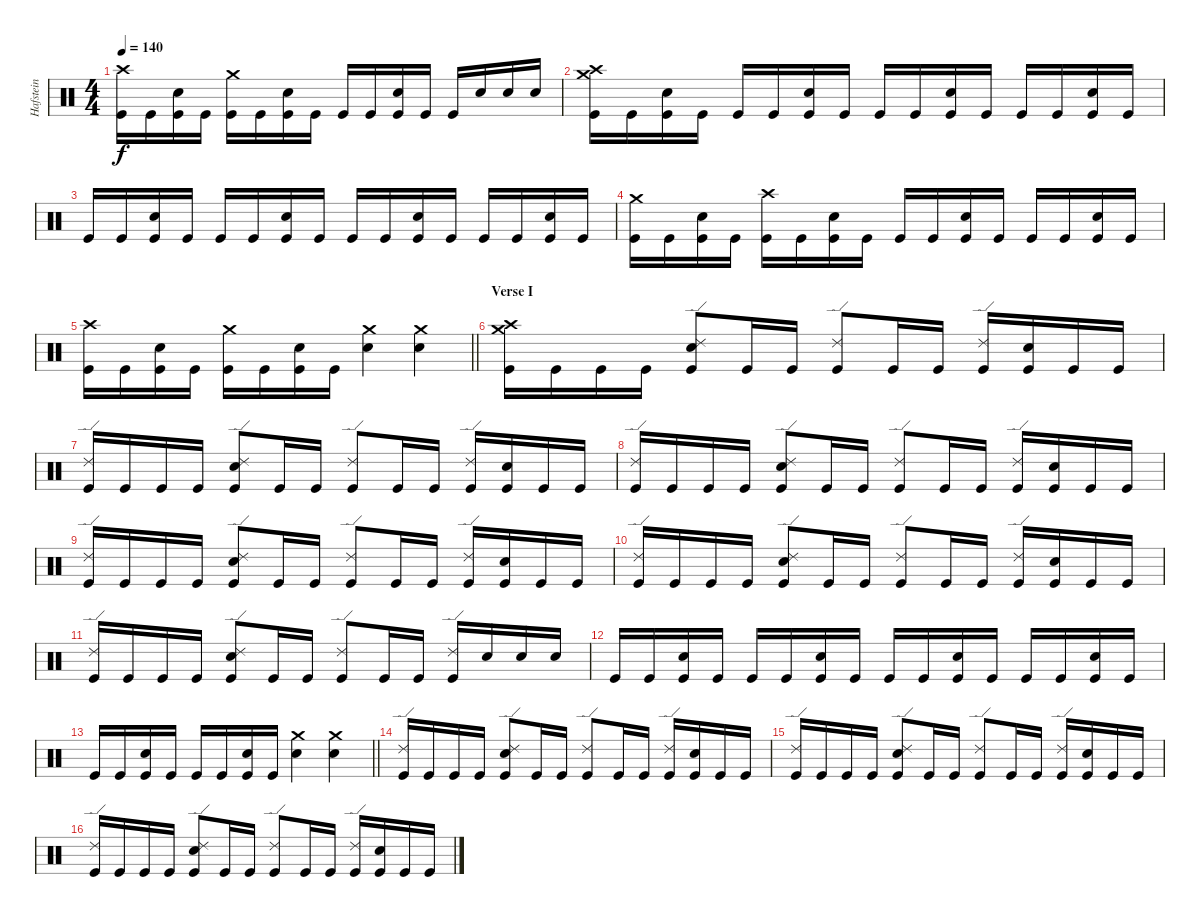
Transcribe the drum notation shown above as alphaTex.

\track ("Hafstein" "Hafstein") {instrument percussion}
\staff {score}
\articulation defaults
\ts (4 4)
\tempo 140
\clef neutral
\ks c
("Crash high (hit)" "Kick (hit)").16{dy f} "Kick (hit)".16 ("Electric Snare (hit)" "Kick (hit)").16 "Kick (hit)".16 ("Crash medium (hit)" "Kick (hit)").16 "Kick (hit)".16 ("Electric Snare (hit)" "Kick (hit)").16 "Kick (hit)".16 "Kick (hit)".16 "Kick (hit)".16 ("Electric Snare (hit)" "Kick (hit)").16 "Kick (hit)".16 "Kick (hit)".16 "Electric Snare (hit)".16 "Electric Snare (hit)".16 "Electric Snare (hit)".16 |
("Crash medium (hit)" "Crash high (hit)" "Kick (hit)").16 "Kick (hit)".16 ("Electric Snare (hit)" "Kick (hit)").16 "Kick (hit)".16 "Kick (hit)".16 "Kick (hit)".16 ("Electric Snare (hit)" "Kick (hit)").16 "Kick (hit)".16 "Kick (hit)".16 "Kick (hit)".16 ("Electric Snare (hit)" "Kick (hit)").16 "Kick (hit)".16 "Kick (hit)".16 "Kick (hit)".16 ("Electric Snare (hit)" "Kick (hit)").16 "Kick (hit)".16 |
"Kick (hit)".16 "Kick (hit)".16 ("Electric Snare (hit)" "Kick (hit)").16 "Kick (hit)".16 "Kick (hit)".16 "Kick (hit)".16 ("Electric Snare (hit)" "Kick (hit)").16 "Kick (hit)".16 "Kick (hit)".16 "Kick (hit)".16 ("Electric Snare (hit)" "Kick (hit)").16 "Kick (hit)".16 "Kick (hit)".16 "Kick (hit)".16 ("Electric Snare (hit)" "Kick (hit)").16 "Kick (hit)".16 |
("Crash medium (hit)" "Kick (hit)").16 "Kick (hit)".16 ("Electric Snare (hit)" "Kick (hit)").16 "Kick (hit)".16 ("Crash high (hit)" "Kick (hit)").16 "Kick (hit)".16 ("Electric Snare (hit)" "Kick (hit)").16 "Kick (hit)".16 "Kick (hit)".16 "Kick (hit)".16 ("Electric Snare (hit)" "Kick (hit)").16 "Kick (hit)".16 "Kick (hit)".16 "Kick (hit)".16 ("Electric Snare (hit)" "Kick (hit)").16 "Kick (hit)".16 |
\barLineRight lightlight
("Crash high (hit)" "Kick (hit)").16 "Kick (hit)".16 ("Electric Snare (hit)" "Kick (hit)").16 "Kick (hit)".16 ("Crash medium (hit)" "Kick (hit)").16 "Kick (hit)".16 ("Electric Snare (hit)" "Kick (hit)").16 "Kick (hit)".16 ("Crash medium (hit)" "Electric Snare (hit)").4 ("Crash medium (hit)" "Electric Snare (hit)").4 |
\section ("" "Verse I")
("Crash medium (hit)" "Crash high (hit)" "Kick (hit)").16 "Kick (hit)".16 "Kick (hit)".16 "Kick (hit)".16 ("Ride (edge) 2" "Electric Snare (hit)" "Kick (hit)").8 "Kick (hit)".16 "Kick (hit)".16 ("Ride (edge) 2" "Kick (hit)").8 "Kick (hit)".16 "Kick (hit)".16 ("Ride (edge) 2" "Kick (hit)").16 ("Electric Snare (hit)" "Kick (hit)").16 "Kick (hit)".16 "Kick (hit)".16 |
("Ride (edge) 2" "Kick (hit)").16 "Kick (hit)".16 "Kick (hit)".16 "Kick (hit)".16 ("Ride (edge) 2" "Electric Snare (hit)" "Kick (hit)").8 "Kick (hit)".16 "Kick (hit)".16 ("Ride (edge) 2" "Kick (hit)").8 "Kick (hit)".16 "Kick (hit)".16 ("Ride (edge) 2" "Kick (hit)").16 ("Electric Snare (hit)" "Kick (hit)").16 "Kick (hit)".16 "Kick (hit)".16 |
("Ride (edge) 2" "Kick (hit)").16 "Kick (hit)".16 "Kick (hit)".16 "Kick (hit)".16 ("Ride (edge) 2" "Electric Snare (hit)" "Kick (hit)").8 "Kick (hit)".16 "Kick (hit)".16 ("Ride (edge) 2" "Kick (hit)").8 "Kick (hit)".16 "Kick (hit)".16 ("Ride (edge) 2" "Kick (hit)").16 ("Electric Snare (hit)" "Kick (hit)").16 "Kick (hit)".16 "Kick (hit)".16 |
("Ride (edge) 2" "Kick (hit)").16 "Kick (hit)".16 "Kick (hit)".16 "Kick (hit)".16 ("Ride (edge) 2" "Electric Snare (hit)" "Kick (hit)").8 "Kick (hit)".16 "Kick (hit)".16 ("Ride (edge) 2" "Kick (hit)").8 "Kick (hit)".16 "Kick (hit)".16 ("Ride (edge) 2" "Kick (hit)").16 ("Electric Snare (hit)" "Kick (hit)").16 "Kick (hit)".16 "Kick (hit)".16 |
("Ride (edge) 2" "Kick (hit)").16 "Kick (hit)".16 "Kick (hit)".16 "Kick (hit)".16 ("Ride (edge) 2" "Electric Snare (hit)" "Kick (hit)").8 "Kick (hit)".16 "Kick (hit)".16 ("Ride (edge) 2" "Kick (hit)").8 "Kick (hit)".16 "Kick (hit)".16 ("Ride (edge) 2" "Kick (hit)").16 ("Electric Snare (hit)" "Kick (hit)").16 "Kick (hit)".16 "Kick (hit)".16 |
("Ride (edge) 2" "Kick (hit)").16 "Kick (hit)".16 "Kick (hit)".16 "Kick (hit)".16 ("Ride (edge) 2" "Electric Snare (hit)" "Kick (hit)").8 "Kick (hit)".16 "Kick (hit)".16 ("Ride (edge) 2" "Kick (hit)").8 "Kick (hit)".16 "Kick (hit)".16 ("Ride (edge) 2" "Kick (hit)").16 "Electric Snare (hit)".16 "Electric Snare (hit)".16 "Electric Snare (hit)".16 |
"Kick (hit)".16 "Kick (hit)".16 ("Electric Snare (hit)" "Kick (hit)").16 "Kick (hit)".16 "Kick (hit)".16 "Kick (hit)".16 ("Electric Snare (hit)" "Kick (hit)").16 "Kick (hit)".16 "Kick (hit)".16 "Kick (hit)".16 ("Electric Snare (hit)" "Kick (hit)").16 "Kick (hit)".16 "Kick (hit)".16 "Kick (hit)".16 ("Electric Snare (hit)" "Kick (hit)").16 "Kick (hit)".16 |
\barLineRight lightlight "Kick (hit)".16 "Kick (hit)".16
("Electric Snare (hit)" "Kick (hit)").16 "Kick (hit)".16 "Kick (hit)".16 "Kick (hit)".16 ("Electric Snare (hit)" "Kick (hit)").16 "Kick (hit)".16 ("Crash medium (hit)" "Electric Snare (hit)").4 ("Crash medium (hit)" "Electric Snare (hit)").4 |
\section ("" "")
("Ride (edge) 2" "Kick (hit)").16 "Kick (hit)".16 "Kick (hit)".16 "Kick (hit)".16 ("Ride (edge) 2" "Electric Snare (hit)" "Kick (hit)").8 "Kick (hit)".16 "Kick (hit)".16 ("Ride (edge) 2" "Kick (hit)").8 "Kick (hit)".16 "Kick (hit)".16 ("Ride (edge) 2" "Kick (hit)").16 ("Electric Snare (hit)" "Kick (hit)").16 "Kick (hit)".16 "Kick (hit)".16 |
("Ride (edge) 2" "Kick (hit)").16 "Kick (hit)".16 "Kick (hit)".16 "Kick (hit)".16 ("Ride (edge) 2" "Electric Snare (hit)" "Kick (hit)").8 "Kick (hit)".16 "Kick (hit)".16 ("Ride (edge) 2" "Kick (hit)").8 "Kick (hit)".16 "Kick (hit)".16 ("Ride (edge) 2" "Kick (hit)").16 ("Electric Snare (hit)" "Kick (hit)").16 "Kick (hit)".16 "Kick (hit)".16 |
("Ride (edge) 2" "Kick (hit)").16 "Kick (hit)".16 "Kick (hit)".16 "Kick (hit)".16 ("Ride (edge) 2" "Electric Snare (hit)" "Kick (hit)").8 "Kick (hit)".16 "Kick (hit)".16 ("Ride (edge) 2" "Kick (hit)").8 "Kick (hit)".16 "Kick (hit)".16 ("Ride (edge) 2" "Kick (hit)").16 ("Electric Snare (hit)" "Kick (hit)").16 "Kick (hit)".16 "Kick (hit)".16
